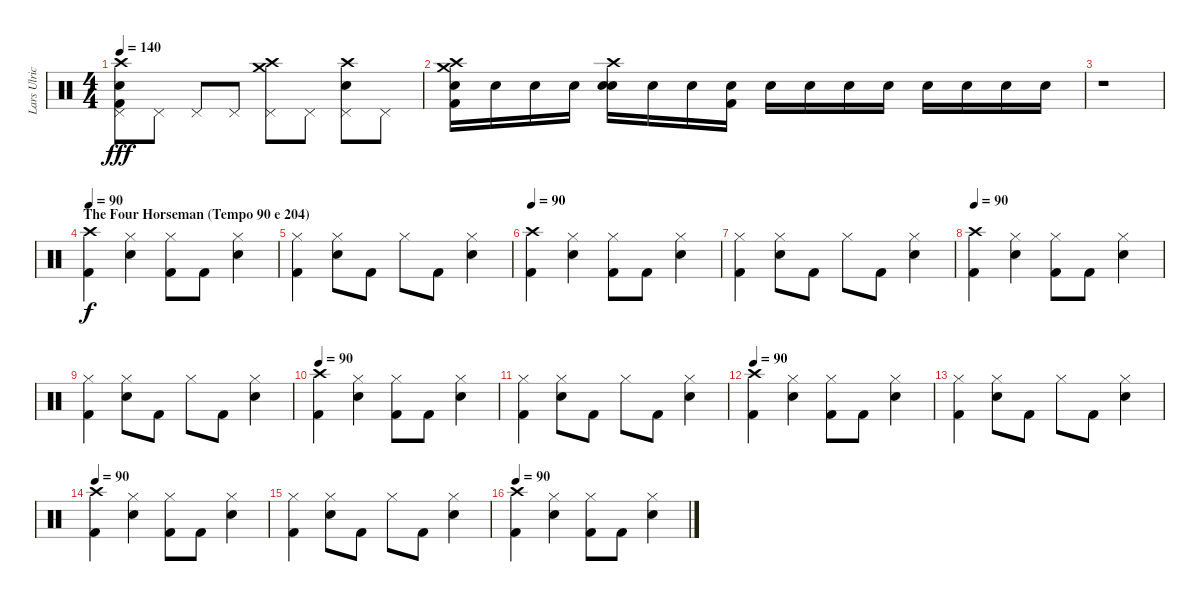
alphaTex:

\track ("Lars Ulrich (Drums)" "Lars Ulric") {instrument percussion}
\staff {score}
\articulation defaults
\ts (4 4)
\tempo 140
\clef neutral
\ks c
("Crash high (hit)" "Pedal Hi-Hat (hit)" "Snare (hit) 2" "Kick (hit) 2").8{dy fff} "Pedal Hi-Hat (hit)".8 "Pedal Hi-Hat (hit)".8 "Pedal Hi-Hat (hit)".8 ("Crash medium (hit)" "Crash high (hit)" "Pedal Hi-Hat (hit)").8 "Pedal Hi-Hat (hit)".8 ("Crash high (hit)" "Pedal Hi-Hat (hit)" "Snare (hit) 2").8 "Pedal Hi-Hat (hit)".8 |
("Crash medium (hit)" "Crash high (hit)" "Snare (hit) 2" "Kick (hit) 2").16 "Snare (hit) 2".16 "Snare (hit) 2".16 "Snare (hit) 2".16 ("Crash high (hit)" "Snare (hit) 2" "Snare (hit) 2").16 "Snare (hit) 2".16 "Snare (hit) 2".16 ("Snare (hit) 2" "Kick (hit) 2").16 "Snare (hit) 2".16 "Snare (hit) 2".16 "Snare (hit) 2".16 "Snare (hit) 2".16 "Snare (hit) 2".16 "Snare (hit) 2".16 "Snare (hit) 2".16 "Snare (hit) 2".16 |
r.1 |
\section ("" "The Four Horseman (Tempo 90 e 204)")
\tempo 90
("Crash high (hit)" "Kick (hit) 2").4{dy f} ("Hi-Hat (closed)" "Electric Snare (hit)").4 ("Hi-Hat (closed)" "Kick (hit) 2").8 "Kick (hit) 2".8 ("Hi-Hat (closed)" "Electric Snare (hit)").4 |
("Hi-Hat (closed)" "Kick (hit) 2").4 ("Hi-Hat (closed)" "Electric Snare (hit)").8 "Kick (hit) 2".8 "Hi-Hat (closed)".8 "Kick (hit) 2".8 ("Hi-Hat (closed)" "Electric Snare (hit)").4 |
\tempo 90
("Crash high (hit)" "Kick (hit) 2").4 ("Hi-Hat (closed)" "Electric Snare (hit)").4 ("Hi-Hat (closed)" "Kick (hit) 2").8 "Kick (hit) 2".8 ("Hi-Hat (closed)" "Electric Snare (hit)").4 |
("Hi-Hat (closed)" "Kick (hit) 2").4 ("Hi-Hat (closed)" "Electric Snare (hit)").8 "Kick (hit) 2".8 "Hi-Hat (closed)".8 "Kick (hit) 2".8 ("Hi-Hat (closed)" "Electric Snare (hit)").4 |
\tempo 90
("Crash high (hit)" "Kick (hit) 2").4 ("Hi-Hat (closed)" "Electric Snare (hit)").4 ("Hi-Hat (closed)" "Kick (hit) 2").8 "Kick (hit) 2".8 ("Hi-Hat (closed)" "Electric Snare (hit)").4 |
("Hi-Hat (closed)" "Kick (hit) 2").4 ("Hi-Hat (closed)" "Electric Snare (hit)").8 "Kick (hit) 2".8 "Hi-Hat (closed)".8 "Kick (hit) 2".8 ("Hi-Hat (closed)" "Electric Snare (hit)").4 |
\tempo 90
("Crash high (hit)" "Kick (hit) 2").4 ("Hi-Hat (closed)" "Electric Snare (hit)").4 ("Hi-Hat (closed)" "Kick (hit) 2").8 "Kick (hit) 2".8 ("Hi-Hat (closed)" "Electric Snare (hit)").4 |
("Hi-Hat (closed)" "Kick (hit) 2").4 ("Hi-Hat (closed)" "Electric Snare (hit)").8 "Kick (hit) 2".8 "Hi-Hat (closed)".8 "Kick (hit) 2".8 ("Hi-Hat (closed)" "Electric Snare (hit)").4 |
\tempo 90
("Crash high (hit)" "Kick (hit) 2").4 ("Hi-Hat (closed)" "Electric Snare (hit)").4 ("Hi-Hat (closed)" "Kick (hit) 2").8 "Kick (hit) 2".8 ("Hi-Hat (closed)" "Electric Snare (hit)").4 |
("Hi-Hat (closed)" "Kick (hit) 2").4 ("Hi-Hat (closed)" "Electric Snare (hit)").8 "Kick (hit) 2".8 "Hi-Hat (closed)".8 "Kick (hit) 2".8 ("Hi-Hat (closed)" "Electric Snare (hit)").4 |
\tempo 90
("Crash high (hit)" "Kick (hit) 2").4 ("Hi-Hat (closed)" "Electric Snare (hit)").4 ("Hi-Hat (closed)" "Kick (hit) 2").8 "Kick (hit) 2".8 ("Hi-Hat (closed)" "Electric Snare (hit)").4 |
("Hi-Hat (closed)" "Kick (hit) 2").4 ("Hi-Hat (closed)" "Electric Snare (hit)").8 "Kick (hit) 2".8 "Hi-Hat (closed)".8 "Kick (hit) 2".8 ("Hi-Hat (closed)" "Electric Snare (hit)").4 |
\tempo 90
("Crash high (hit)" "Kick (hit) 2").4 ("Hi-Hat (closed)" "Electric Snare (hit)").4 ("Hi-Hat (closed)" "Kick (hit) 2").8 "Kick (hit) 2".8 ("Hi-Hat (closed)" "Electric Snare (hit)").4
